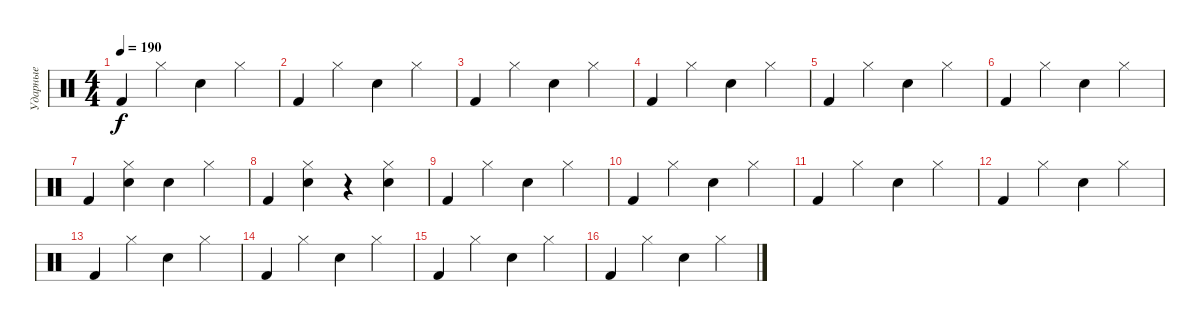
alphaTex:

\track ("Ударные" "Ударные") {instrument percussion}
\staff {score}
\articulation defaults
\ts (4 4)
\tempo 190
\clef neutral
\ks c "Kick (hit) 2".4{dy f} "Hi-Hat (closed)".4 "Snare (hit) 2".4 "Hi-Hat (closed)".4
|
"Kick (hit) 2".4 "Hi-Hat (closed)".4 "Snare (hit) 2".4 "Hi-Hat (closed)".4 |
"Kick (hit) 2".4 "Hi-Hat (closed)".4 "Snare (hit) 2".4 "Hi-Hat (closed)".4 |
"Kick (hit) 2".4 "Hi-Hat (closed)".4 "Snare (hit) 2".4 "Hi-Hat (closed)".4 |
"Kick (hit) 2".4 "Hi-Hat (closed)".4 "Snare (hit) 2".4 "Hi-Hat (closed)".4 |
"Kick (hit) 2".4 "Hi-Hat (closed)".4 "Snare (hit) 2".4 "Hi-Hat (closed)".4 |
"Kick (hit) 2".4 ("Hi-Hat (closed)" "Snare (hit) 2").4 "Snare (hit) 2".4 "Hi-Hat (closed)".4 |
"Kick (hit) 2".4 ("Hi-Hat (closed)" "Snare (hit) 2").4 r.4 ("Hi-Hat (closed)" "Snare (hit) 2").4 |
"Kick (hit) 2".4 "Hi-Hat (closed)".4 "Snare (hit) 2".4 "Hi-Hat (closed)".4 |
"Kick (hit) 2".4 "Hi-Hat (closed)".4 "Snare (hit) 2".4 "Hi-Hat (closed)".4 |
"Kick (hit) 2".4 "Hi-Hat (closed)".4 "Snare (hit) 2".4 "Hi-Hat (closed)".4 |
"Kick (hit) 2".4 "Hi-Hat (closed)".4 "Snare (hit) 2".4 "Hi-Hat (closed)".4 |
"Kick (hit) 2".4 "Hi-Hat (closed)".4 "Snare (hit) 2".4 "Hi-Hat (closed)".4 |
"Kick (hit) 2".4 "Hi-Hat (closed)".4 "Snare (hit) 2".4 "Hi-Hat (closed)".4 |
"Kick (hit) 2".4 "Hi-Hat (closed)".4 "Snare (hit) 2".4 "Hi-Hat (closed)".4 |
"Kick (hit) 2".4 "Hi-Hat (closed)".4 "Snare (hit) 2".4 "Hi-Hat (closed)".4
